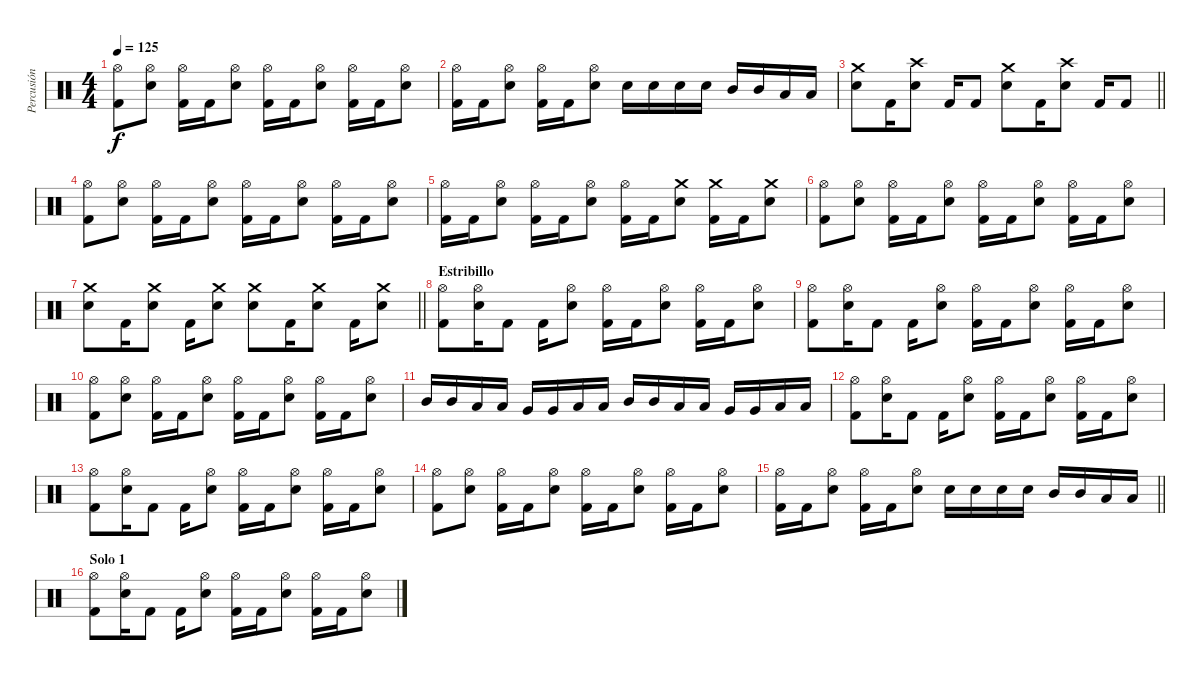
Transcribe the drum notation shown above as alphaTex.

\track ("Percusión" "Percusión") {instrument percussion}
\staff {score}
\articulation defaults
\ts (4 4)
\tempo 125
\clef neutral
\ks c
("Hi-Hat (open)" "Kick (hit) 2").8{dy f} ("Hi-Hat (open)" "Snare (hit) 2").8 ("Hi-Hat (open)" "Kick (hit) 2").16 "Kick (hit) 2".16 ("Hi-Hat (open)" "Snare (hit) 2").8 ("Hi-Hat (open)" "Kick (hit) 2").16 "Kick (hit) 2".16 ("Hi-Hat (open)" "Snare (hit) 2").8 ("Hi-Hat (open)" "Kick (hit) 2").16 "Kick (hit) 2".16 ("Hi-Hat (open)" "Snare (hit) 2").8 |
("Hi-Hat (open)" "Kick (hit) 2").16 "Kick (hit) 2".16 ("Hi-Hat (open)" "Snare (hit) 2").8 ("Hi-Hat (open)" "Kick (hit) 2").16 "Kick (hit) 2".16 ("Hi-Hat (open)" "Snare (hit) 2").8 "Snare (hit) 2".16 "Snare (hit) 2".16 "Snare (hit) 2".16 "Snare (hit) 2".16 "Mid Tom (hit)".16 "Mid Tom (hit)".16 "Low Tom (hit)".16 "Low Tom (hit)".16 |
\barLineRight lightlight
("Crash medium (hit)" "Snare (hit) 2").8 "Kick (hit) 2".16 ("Crash high (hit)" "Snare (hit) 2").8 "Kick (hit) 2".16 "Kick (hit) 2".8 ("Crash medium (hit)" "Snare (hit) 2").8 "Kick (hit) 2".16 ("Crash high (hit)" "Snare (hit) 2").8 "Kick (hit) 2".16 "Kick (hit) 2".8 |
("Hi-Hat (open)" "Kick (hit) 2").8 ("Hi-Hat (open)" "Snare (hit) 2").8 ("Hi-Hat (open)" "Kick (hit) 2").16 "Kick (hit) 2".16 ("Hi-Hat (open)" "Snare (hit) 2").8 ("Hi-Hat (open)" "Kick (hit) 2").16 "Kick (hit) 2".16 ("Hi-Hat (open)" "Snare (hit) 2").8 ("Hi-Hat (open)" "Kick (hit) 2").16 "Kick (hit) 2".16 ("Hi-Hat (open)" "Snare (hit) 2").8 |
("Hi-Hat (open)" "Kick (hit) 2").16 "Kick (hit) 2".16 ("Hi-Hat (open)" "Snare (hit) 2").8 ("Hi-Hat (open)" "Kick (hit) 2").16 "Kick (hit) 2".16 ("Hi-Hat (open)" "Snare (hit) 2").8 ("Hi-Hat (open)" "Kick (hit) 2").16 "Kick (hit) 2".16 ("Crash medium (hit)" "Snare (hit) 2").8 ("Crash medium (hit)" "Kick (hit) 2").16 "Kick (hit) 2".16 ("Crash medium (hit)" "Snare (hit) 2").8 |
("Hi-Hat (open)" "Kick (hit) 2").8 ("Hi-Hat (open)" "Snare (hit) 2").8 ("Hi-Hat (open)" "Kick (hit) 2").16 "Kick (hit) 2".16 ("Hi-Hat (open)" "Snare (hit) 2").8 ("Hi-Hat (open)" "Kick (hit) 2").16 "Kick (hit) 2".16 ("Hi-Hat (open)" "Snare (hit) 2").8 ("Hi-Hat (open)" "Kick (hit) 2").16 "Kick (hit) 2".16 ("Hi-Hat (open)" "Snare (hit) 2").8 |
\barLineRight lightlight
("Crash medium (hit)" "Snare (hit) 2").8 "Kick (hit) 2".16 ("Crash medium (hit)" "Snare (hit) 2").8 "Kick (hit) 2".16 ("Crash medium (hit)" "Snare (hit) 2").8 ("Crash medium (hit)" "Snare (hit) 2").8 "Kick (hit) 2".16 ("Crash medium (hit)" "Snare (hit) 2").8 "Kick (hit) 2".16 ("Crash medium (hit)" "Snare (hit) 2").8 |
\section ("" "Estribillo")
("Hi-Hat (open)" "Kick (hit) 2").8 ("Hi-Hat (open)" "Snare (hit) 2").16 "Kick (hit) 2".8 "Kick (hit) 2".16 ("Hi-Hat (open)" "Snare (hit) 2").8 ("Hi-Hat (open)" "Kick (hit) 2").16 "Kick (hit) 2".16 ("Hi-Hat (open)" "Snare (hit) 2").8 ("Hi-Hat (open)" "Kick (hit) 2").16 "Kick (hit) 2".16 ("Hi-Hat (open)" "Snare (hit) 2").8 |
("Hi-Hat (open)" "Kick (hit) 2").8 ("Hi-Hat (open)" "Snare (hit) 2").16 "Kick (hit) 2".8 "Kick (hit) 2".16 ("Hi-Hat (open)" "Snare (hit) 2").8 ("Hi-Hat (open)" "Kick (hit) 2").16 "Kick (hit) 2".16 ("Hi-Hat (open)" "Snare (hit) 2").8 ("Hi-Hat (open)" "Kick (hit) 2").16 "Kick (hit) 2".16 ("Hi-Hat (open)" "Snare (hit) 2").8 |
("Hi-Hat (open)" "Kick (hit) 2").8 ("Hi-Hat (open)" "Snare (hit) 2").8 ("Hi-Hat (open)" "Kick (hit) 2").16 "Kick (hit) 2".16 ("Hi-Hat (open)" "Snare (hit) 2").8 ("Hi-Hat (open)" "Kick (hit) 2").16 "Kick (hit) 2".16 ("Hi-Hat (open)" "Snare (hit) 2").8 ("Hi-Hat (open)" "Kick (hit) 2").16 "Kick (hit) 2".16 ("Hi-Hat (open)" "Snare (hit) 2").8 |
"Mid Tom (hit)".16 "Mid Tom (hit)".16 "Low Tom (hit)".16 "Low Tom (hit)".16 "Very Low Tom (hit)".16 "Very Low Tom (hit)".16 "Low Floor Tom (hit)".16 "Low Floor Tom (hit)".16 "Mid Tom (hit)".16 "Mid Tom (hit)".16 "Low Tom (hit)".16 "Low Tom (hit)".16 "Very Low Tom (hit)".16 "Very Low Tom (hit)".16 "Low Floor Tom (hit)".16 "Low Floor Tom (hit)".16 |
("Hi-Hat (open)" "Kick (hit) 2").8 ("Hi-Hat (open)" "Snare (hit) 2").16 "Kick (hit) 2".8 "Kick (hit) 2".16 ("Hi-Hat (open)" "Snare (hit) 2").8 ("Hi-Hat (open)" "Kick (hit) 2").16 "Kick (hit) 2".16 ("Hi-Hat (open)" "Snare (hit) 2").8 ("Hi-Hat (open)" "Kick (hit) 2").16 "Kick (hit) 2".16 ("Hi-Hat (open)" "Snare (hit) 2").8 |
("Hi-Hat (open)" "Kick (hit) 2").8 ("Hi-Hat (open)" "Snare (hit) 2").16 "Kick (hit) 2".8 "Kick (hit) 2".16 ("Hi-Hat (open)" "Snare (hit) 2").8 ("Hi-Hat (open)" "Kick (hit) 2").16 "Kick (hit) 2".16 ("Hi-Hat (open)" "Snare (hit) 2").8 ("Hi-Hat (open)" "Kick (hit) 2").16 "Kick (hit) 2".16 ("Hi-Hat (open)" "Snare (hit) 2").8 |
("Hi-Hat (open)" "Kick (hit) 2").8 ("Hi-Hat (open)" "Snare (hit) 2").8 ("Hi-Hat (open)" "Kick (hit) 2").16 "Kick (hit) 2".16 ("Hi-Hat (open)" "Snare (hit) 2").8 ("Hi-Hat (open)" "Kick (hit) 2").16 "Kick (hit) 2".16 ("Hi-Hat (open)" "Snare (hit) 2").8 ("Hi-Hat (open)" "Kick (hit) 2").16 "Kick (hit) 2".16 ("Hi-Hat (open)" "Snare (hit) 2").8 |
\barLineRight lightlight
("Hi-Hat (open)" "Kick (hit) 2").16 "Kick (hit) 2".16 ("Hi-Hat (open)" "Snare (hit) 2").8 ("Hi-Hat (open)" "Kick (hit) 2").16 "Kick (hit) 2".16 ("Hi-Hat (open)" "Snare (hit) 2").8 "Snare (hit) 2".16 "Snare (hit) 2".16 "Snare (hit) 2".16 "Snare (hit) 2".16 "Mid Tom (hit)".16 "Mid Tom (hit)".16 "Low Tom (hit)".16 "Low Tom (hit)".16 |
\section ("" "Solo 1")
("Hi-Hat (open)" "Kick (hit) 2").8 ("Hi-Hat (open)" "Snare (hit) 2").16 "Kick (hit) 2".8 "Kick (hit) 2".16 ("Hi-Hat (open)" "Snare (hit) 2").8 ("Hi-Hat (open)" "Kick (hit) 2").16 "Kick (hit) 2".16 ("Hi-Hat (open)" "Snare (hit) 2").8 ("Hi-Hat (open)" "Kick (hit) 2").16 "Kick (hit) 2".16 ("Hi-Hat (open)" "Snare (hit) 2").8
